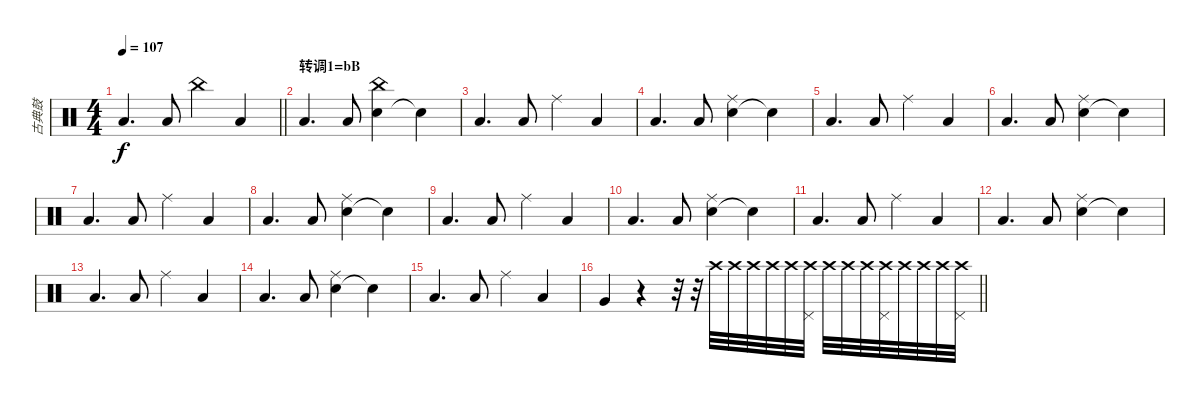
\track ("古典鼓" "古典鼓") {instrument percussion}
\staff {score}
\articulation defaults
\ts (4 4)
\tempo 107
\clef neutral
\barLineRight lightlight
\ks c "Low Floor Tom (hit)".4{d dy f} "Low Floor Tom (hit)".8 "China (hit)".4 "Low Floor Tom (hit)".4
|
\section ("" "转调1=bB")
"Low Floor Tom (hit)".4{d} "Low Floor Tom (hit)".8 ("Hand Clap (hit)" "China (hit)").4 "Snare (hit)"{t}.4 |
"Low Floor Tom (hit)".4{d} "Low Floor Tom (hit)".8 "Ride (middle)".4 "Low Floor Tom (hit)".4 |
"Low Floor Tom (hit)".4{d} "Low Floor Tom (hit)".8 ("Hand Clap (hit)" "Ride (middle)").4 "Snare (hit)"{t}.4 |
"Low Floor Tom (hit)".4{d} "Low Floor Tom (hit)".8 "Ride (middle)".4 "Low Floor Tom (hit)".4 |
"Low Floor Tom (hit)".4{d} "Low Floor Tom (hit)".8 ("Hand Clap (hit)" "Ride (middle)").4 "Snare (hit)"{t}.4 |
"Low Floor Tom (hit)".4{d} "Low Floor Tom (hit)".8 "Ride (middle)".4 "Low Floor Tom (hit)".4 |
"Low Floor Tom (hit)".4{d} "Low Floor Tom (hit)".8 ("Hand Clap (hit)" "Ride (middle)").4 "Snare (hit)"{t}.4 |
"Low Floor Tom (hit)".4{d} "Low Floor Tom (hit)".8 "Ride (middle)".4 "Low Floor Tom (hit)".4 |
"Low Floor Tom (hit)".4{d} "Low Floor Tom (hit)".8 ("Hand Clap (hit)" "Ride (middle)").4 "Snare (hit)"{t}.4 |
"Low Floor Tom (hit)".4{d} "Low Floor Tom (hit)".8 "Ride (middle)".4 "Low Floor Tom (hit)".4 |
"Low Floor Tom (hit)".4{d} "Low Floor Tom (hit)".8 ("Hand Clap (hit)" "Ride (middle)").4 "Snare (hit)"{t}.4 |
"Low Floor Tom (hit)".4{d} "Low Floor Tom (hit)".8 "Ride (middle)".4 "Low Floor Tom (hit)".4 |
"Low Floor Tom (hit)".4{d} "Low Floor Tom (hit)".8 ("Hand Clap (hit)" "Ride (middle)").4 "Snare (hit)"{t}.4 |
"Low Floor Tom (hit)".4{d} "Low Floor Tom (hit)".8 "Ride (middle)".4 "Low Floor Tom (hit)".4 |
\barLineRight lightlight "Very Low Tom (hit)".4
r.4 r.32 r.32 "Crash high (hit)".32{volume 0} "Crash high (hit)".32{volume 16} "Crash high (hit)".32 "Crash high (hit)".32 "Crash high (hit)".32 ("Crash high (hit)" "Pedal Hi-Hat (hit)").32 "Crash high (hit)".32 "Crash high (hit)".32 "Crash high (hit)".32 ("Crash high (hit)" "Pedal Hi-Hat (hit)").32 "Crash high (hit)".32 "Crash high (hit)".32 "Crash high (hit)".32 ("Crash high (hit)" "Pedal Hi-Hat (hit)").32
